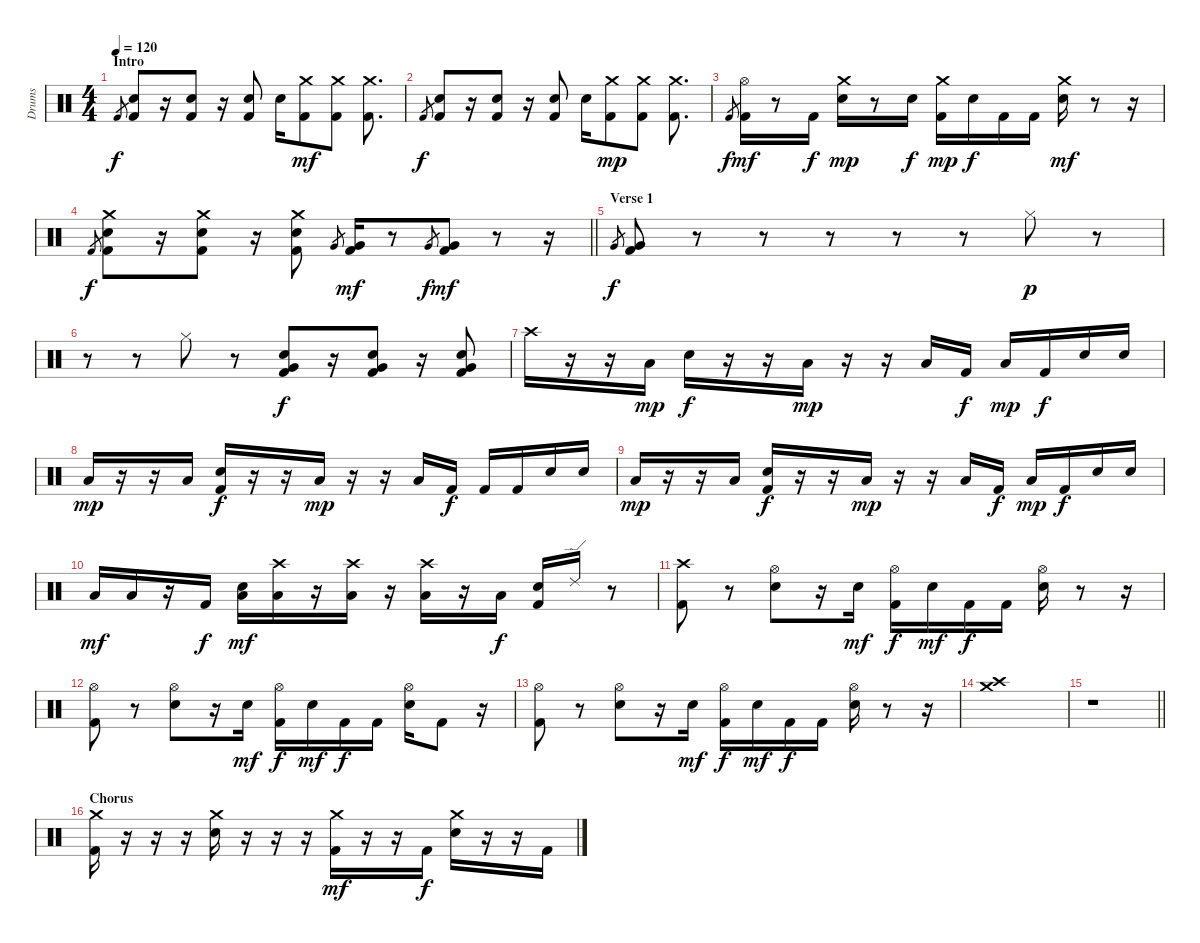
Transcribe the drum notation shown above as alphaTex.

\track ("Drums" "Drums") {instrument percussion}
\staff {score}
\articulation defaults
\ts (4 4)
\section ("" "Intro")
\tempo 120
\clef neutral
\ks c "Kick (hit) 2".8{gr dy f}
("Kick (hit) 2" "Electric Snare (hit)").8 r.16 ("Kick (hit) 2" "Electric Snare (hit)").8 r.16 ("Kick (hit) 2" "Electric Snare (hit)").8 "Electric Snare (hit)".16 ("Kick (hit) 2" "Crash medium (hit)").8{dy mf} ("Kick (hit) 2" "Crash medium (hit)").8 ("Kick (hit) 2" "Crash medium (hit)").8{d} |
"Kick (hit) 2".8{gr dy f} ("Kick (hit) 2" "Electric Snare (hit)").8 r.16 ("Kick (hit) 2" "Electric Snare (hit)").8 r.16 ("Kick (hit) 2" "Electric Snare (hit)").8 "Electric Snare (hit)".16 ("Kick (hit) 2" "Crash medium (hit)").8{dy mp} ("Kick (hit) 2" "Crash medium (hit)").8 ("Kick (hit) 2" "Crash medium (hit)").8{d} |
"Kick (hit) 2".8{gr dy f} ("Kick (hit) 2" "Hi-Hat (open)").16{dy mf} r.8 "Kick (hit) 2".16{dy f} ("Crash medium (hit)" "Electric Snare (hit)").16{dy mp} r.8 "Electric Snare (hit)".16{dy f} ("Kick (hit) 2" "Crash medium (hit)").16{dy mp} "Electric Snare (hit)".16{dy f} "Kick (hit) 2".16 "Kick (hit) 2".16 ("Crash medium (hit)" "Electric Snare (hit)").16{dy mf} r.8 r.16 |
\barLineRight lightlight "Kick (hit) 2".8{gr dy f}
("Kick (hit) 2" "Crash medium (hit)" "Electric Snare (hit)").8 r.16 ("Kick (hit) 2" "Crash medium (hit)" "Electric Snare (hit)").8 r.16 ("Kick (hit) 2" "Crash medium (hit)" "Electric Snare (hit)").8 "Very Low Tom (hit)".8{gr} ("Very Low Tom (hit)" "Kick (hit) 2").16{dy mf} r.8 "Very Low Tom (hit)".8{gr dy f} ("Very Low Tom (hit)" "Kick (hit) 2").8{dy mf} r.8 r.16 |
\section ("" "Verse 1")
"Very Low Tom (hit)".8{gr dy f} ("Very Low Tom (hit)" "Kick (hit) 2").8 r.8 r.8 r.8 r.8 r.8 "Hi-Hat (closed)".8{dy p} r.8 |
r.8 r.8 "Hi-Hat (closed)".8 r.8 ("Very Low Tom (hit)" "Kick (hit) 2" "Electric Snare (hit)").8{dy f} r.16 ("Very Low Tom (hit)" "Kick (hit) 2" "Electric Snare (hit)").8 r.16 ("Very Low Tom (hit)" "Kick (hit) 2" "Electric Snare (hit)").8 |
"Crash high (hit)".16 r.16 r.16 "Low Floor Tom (hit)".16{dy mp} "Electric Snare (hit)".16{dy f} r.16 r.16 "Low Floor Tom (hit)".16{dy mp} r.16 r.16 "Low Floor Tom (hit)".16 "Kick (hit) 2".16{dy f} "Low Floor Tom (hit)".16{dy mp} "Kick (hit) 2".16{dy f} "Electric Snare (hit)".16 "Electric Snare (hit)".16 |
"Low Floor Tom (hit)".16{dy mp} r.16 r.16 "Low Floor Tom (hit)".16 ("Kick (hit) 2" "Electric Snare (hit)").16{dy f} r.16 r.16 "Low Floor Tom (hit)".16{dy mp} r.16 r.16 "Low Floor Tom (hit)".16 "Kick (hit) 2".16{dy f} "Kick (hit) 2".16 "Kick (hit) 2".16 "Electric Snare (hit)".16 "Electric Snare (hit)".16 |
"Low Floor Tom (hit)".16{dy mp} r.16 r.16 "Low Floor Tom (hit)".16 ("Kick (hit) 2" "Electric Snare (hit)").16{dy f} r.16 r.16 "Low Floor Tom (hit)".16{dy mp} r.16 r.16 "Low Floor Tom (hit)".16 "Kick (hit) 2".16{dy f} "Low Floor Tom (hit)".16{dy mp} "Kick (hit) 2".16{dy f} "Electric Snare (hit)".16 "Electric Snare (hit)".16 |
"Low Floor Tom (hit)".16{dy mf} "Low Floor Tom (hit)".16 r.16 "Kick (hit) 2".16{dy f} ("Low Floor Tom (hit)" "Electric Snare (hit)").16{dy mf} ("Low Floor Tom (hit)" "Crash high (hit)").16 r.16 ("Low Floor Tom (hit)" "Crash high (hit)").16 r.16 ("Low Floor Tom (hit)" "Crash high (hit)").16 r.16 "Low Floor Tom (hit)".16{dy f} ("Electric Snare (hit)" "Kick (hit) 2").16 "Ride (edge) 2".16 r.8 |
("Crash high (hit)" "Kick (hit) 2").8 r.8 ("Hi-Hat (open)" "Electric Snare (hit)").8 r.16 "Electric Snare (hit)".16{dy mf} ("Hi-Hat (open)" "Kick (hit) 2").16{dy f} "Electric Snare (hit)".16{dy mf} "Kick (hit) 2".16{dy f} "Kick (hit) 2".16 ("Hi-Hat (open)" "Electric Snare (hit)").16 r.8 r.16 |
("Hi-Hat (open)" "Kick (hit) 2").8 r.8 ("Hi-Hat (open)" "Electric Snare (hit)").8 r.16 "Electric Snare (hit)".16{dy mf} ("Hi-Hat (open)" "Kick (hit) 2").16{dy f} "Electric Snare (hit)".16{dy mf} "Kick (hit) 2".16{dy f} "Kick (hit) 2".16 ("Hi-Hat (open)" "Electric Snare (hit)").16 "Kick (hit) 2".8 r.16 |
("Hi-Hat (open)" "Kick (hit) 2").8 r.8 ("Hi-Hat (open)" "Electric Snare (hit)").8 r.16 "Electric Snare (hit)".16{dy mf} ("Hi-Hat (open)" "Kick (hit) 2").16{dy f} "Electric Snare (hit)".16{dy mf} "Kick (hit) 2".16{dy f} "Kick (hit) 2".16 ("Hi-Hat (open)" "Electric Snare (hit)").16 r.8 r.16 |
("Crash medium (hit)" "Crash high (hit)").1 |
\barLineRight lightlight
r.1 |
\section ("" "Chorus")
("Crash medium (hit)" "Kick (hit) 2").16 r.16 r.16 r.16 ("Crash medium (hit)" "Electric Snare (hit)").16 r.16 r.16 r.16 ("Crash medium (hit)" "Kick (hit) 2").16{dy mf} r.16 r.16 "Kick (hit) 2".16{dy f} ("Crash medium (hit)" "Electric Snare (hit)").16 r.16 r.16 "Kick (hit) 2".16
